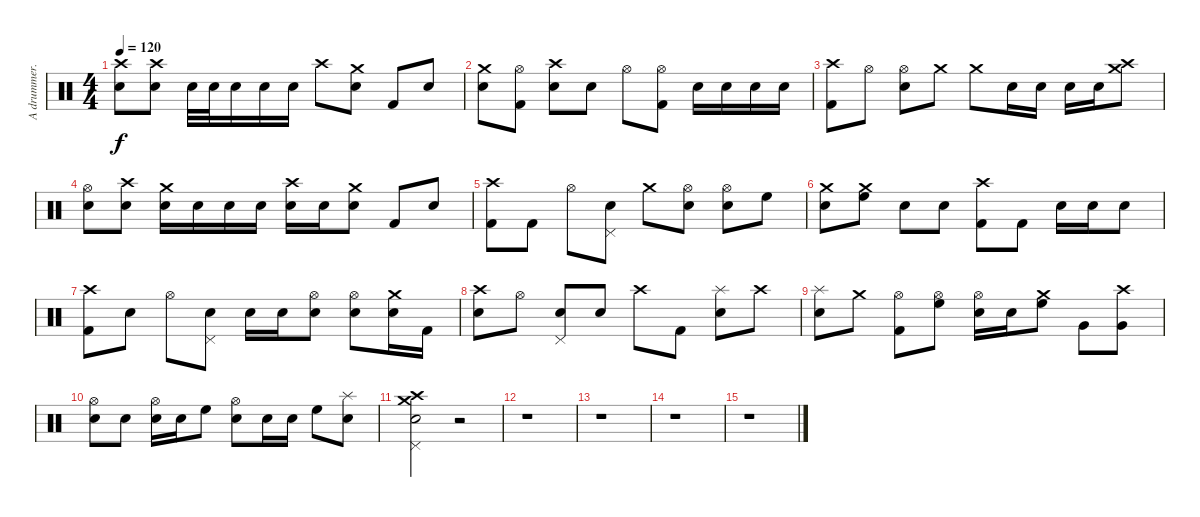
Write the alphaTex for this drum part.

\track ("A drummer...." "A drummer.") {instrument percussion}
\staff {score}
\articulation defaults
\ts (4 4)
\tempo 120
\clef neutral
\ks c
("Crash high (hit)" "Snare (hit) 2").8{dy f} ("Crash high (hit)" "Snare (hit) 2").8 "Snare (hit) 2".32 "Snare (hit) 2".32 "Snare (hit) 2".16 "Snare (hit) 2".16 "Snare (hit) 2".16 "Crash high (hit)".8 ("Crash medium (hit)" "Snare (hit) 2").8 "Kick (hit) 2".8 "Snare (hit) 2".8 |
("Crash medium (hit)" "Snare (hit) 2").8 ("Hi-Hat (open)" "Kick (hit) 2").8 ("Crash high (hit)" "Snare (hit) 2").8 "Snare (hit) 2".8 "Hi-Hat (open)".8 ("Hi-Hat (open)" "Kick (hit) 2").8 "Snare (hit) 2".16 "Snare (hit) 2".16 "Snare (hit) 2".16 "Snare (hit) 2".16 |
("Crash high (hit)" "Kick (hit) 2").8 "Hi-Hat (open)".8 ("Hi-Hat (open)" "Snare (hit) 2").8 "Crash medium (hit)".8 "Crash medium (hit)".8 "Snare (hit) 2".16 "Snare (hit) 2".16 "Snare (hit) 2".16 "Snare (hit) 2".16 ("Crash medium (hit)" "Crash high (hit)").8 |
("Hi-Hat (open)" "Snare (hit) 2").8 ("Crash high (hit)" "Snare (hit) 2").8 ("Crash medium (hit)" "Snare (hit) 2").16 "Snare (hit) 2".16 "Snare (hit) 2".16 "Snare (hit) 2".16 ("Crash high (hit)" "Snare (hit) 2").16 "Snare (hit) 2".16 ("Crash medium (hit)" "Snare (hit) 2").8 "Kick (hit) 2".8 "Snare (hit) 2".8 |
("Crash high (hit)" "Kick (hit) 2").8 "Kick (hit) 2".8 "Hi-Hat (open)".8 ("Pedal Hi-Hat (hit)" "Snare (hit) 2").8 "Crash medium (hit)".8 ("Hi-Hat (open)" "Snare (hit) 2").8 ("Hi-Hat (open)" "Snare (hit) 2").8 "High Floor Tom (hit)".8 |
("Crash medium (hit)" "Snare (hit) 2").8 ("Crash medium (hit)" "High Floor Tom (hit)").8 "Snare (hit) 2".8 "Snare (hit) 2".8 ("Crash high (hit)" "Kick (hit) 2").8 "Kick (hit) 2".8 "Snare (hit) 2".16 "Snare (hit) 2".16 "Snare (hit) 2".8 |
("Crash high (hit)" "Kick (hit) 2").8 "Snare (hit) 2".8 "Hi-Hat (open)".8 ("Pedal Hi-Hat (hit)" "Snare (hit) 2").8 "Snare (hit) 2".16 "Snare (hit) 2".16 ("Hi-Hat (open)" "Snare (hit) 2").8 ("Hi-Hat (open)" "Snare (hit) 2").8 ("Crash medium (hit)" "Snare (hit) 2").16 "Kick (hit) 2".16 |
("Crash high (hit)" "Snare (hit) 2").8 "Hi-Hat (open)".8 ("Pedal Hi-Hat (hit)" "Snare (hit) 2").8 "Snare (hit) 2".8 "Crash high (hit)".8 "Kick (hit) 2".8 ("Splash (hit)" "Snare (hit) 2").8 "Crash high (hit)".8 |
("Splash (hit)" "Snare (hit) 2").8 "Crash medium (hit)".8 ("Hi-Hat (open)" "Kick (hit) 2").8 ("Hi-Hat (open)" "High Floor Tom (hit)").8 ("Hi-Hat (open)" "Snare (hit) 2").16 "Snare (hit) 2".16 ("High Floor Tom (hit)" "Crash medium (hit)").8 "Very Low Tom (hit)".8 ("Crash high (hit)" "Very Low Tom (hit)").8 |
("Hi-Hat (open)" "Snare (hit) 2").8 "Snare (hit) 2".8 ("Hi-Hat (open)" "Snare (hit) 2").16 "Snare (hit) 2".16 "High Floor Tom (hit)".8 ("Hi-Hat (open)" "Snare (hit) 2").8 "Snare (hit) 2".16 "Snare (hit) 2".16 "High Floor Tom (hit)".8 ("Splash (hit)" "Snare (hit) 2").8 |
("Crash high (hit)" "Crash medium (hit)" "Snare (hit) 2" "Pedal Hi-Hat (hit)").2 r.2 |
r.1 |
r.1 |
r.1 |
r.1
